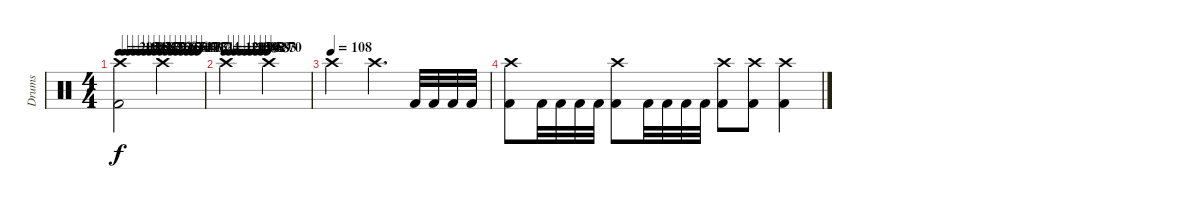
\track ("Drums" "Drums") {instrument percussion}
\staff {score}
\articulation defaults
\ts (4 4)
\tempo 205
\tempo (198 0.0625)
\tempo (195 0.125)
\tempo (188 0.1875)
\tempo (182 0.25)
\tempo (179 0.3125)
\tempo (172 0.375)
\tempo (166 0.4375)
\tempo (163 0.5)
\tempo (156 0.5625)
\tempo (153 0.625)
\tempo (147 0.6875)
\tempo (140 0.75)
\tempo (137 0.8125)
\tempo (131 0.875)
\tempo (124 0.9375)
\clef neutral
\ks c
("Kick (hit) 2" "Crash high (hit)").2{dy f} "Crash high (hit)".2 |
\tempo 121
\tempo (115 0.0625)
\tempo (108 0.125)
\tempo (105 0.1875)
\tempo (99 0.25)
\tempo (92 0.3125)
\tempo (89 0.375)
\tempo (83 0.4375)
\tempo (70 0.5)
"Crash high (hit)".2 "Crash high (hit)".2 |
\tempo (108)
"Crash high (hit)".2 "Crash high (hit)".4{d} "Kick (hit) 2".32 "Kick (hit) 2".32 "Kick (hit) 2".32 "Kick (hit) 2".32 |
("Kick (hit) 2" "Crash high (hit)").8 "Kick (hit) 2".32 "Kick (hit) 2".32 "Kick (hit) 2".32 "Kick (hit) 2".32 ("Kick (hit) 2" "Crash high (hit)").8 "Kick (hit) 2".32 "Kick (hit) 2".32 "Kick (hit) 2".32 "Kick (hit) 2".32 ("Kick (hit) 2" "Crash high (hit)").8 ("Kick (hit) 2" "Crash high (hit)").8 ("Crash high (hit)" "Kick (hit) 2").4
